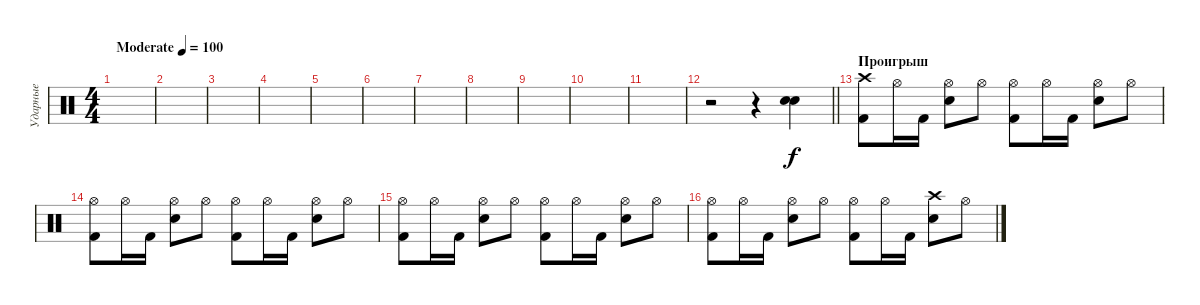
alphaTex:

\track ("Ударные" "Ударные") {instrument percussion}
\staff {score}
\articulation defaults
\ts (4 4)
\tempo (100 "Moderate")
\clef neutral
\ks c
|
|
|
|
|
|
|
|
|
|
|
\barLineRight lightlight
r.2 r.4 ("Electric Snare (hit)" "Electric Snare (hit)").4 |
\section ("" "Проигрыш")
("Crash high (hit)" "Kick (hit) 2").8 "Hi-Hat (open)".16 "Kick (hit) 2".16 ("Hi-Hat (open)" "Electric Snare (hit)").8 "Hi-Hat (open)".8 ("Hi-Hat (open)" "Kick (hit) 2").8 "Hi-Hat (open)".16 "Kick (hit) 2".16 ("Hi-Hat (open)" "Electric Snare (hit)").8 "Hi-Hat (open)".8 |
("Hi-Hat (open)" "Kick (hit) 2").8 "Hi-Hat (open)".16 "Kick (hit) 2".16 ("Hi-Hat (open)" "Electric Snare (hit)").8 "Hi-Hat (open)".8 ("Hi-Hat (open)" "Kick (hit) 2").8 "Hi-Hat (open)".16 "Kick (hit) 2".16 ("Hi-Hat (open)" "Electric Snare (hit)").8 "Hi-Hat (open)".8 |
("Hi-Hat (open)" "Kick (hit) 2").8 "Hi-Hat (open)".16 "Kick (hit) 2".16 ("Hi-Hat (open)" "Electric Snare (hit)").8 "Hi-Hat (open)".8 ("Hi-Hat (open)" "Kick (hit) 2").8 "Hi-Hat (open)".16 "Kick (hit) 2".16 ("Hi-Hat (open)" "Electric Snare (hit)").8 "Hi-Hat (open)".8 |
("Hi-Hat (open)" "Kick (hit) 2").8 "Hi-Hat (open)".16 "Kick (hit) 2".16 ("Hi-Hat (open)" "Electric Snare (hit)").8 "Hi-Hat (open)".8 ("Hi-Hat (open)" "Kick (hit) 2").8 "Hi-Hat (open)".16 "Kick (hit) 2".16 ("Crash high (hit)" "Electric Snare (hit)").8 "Hi-Hat (open)".8
